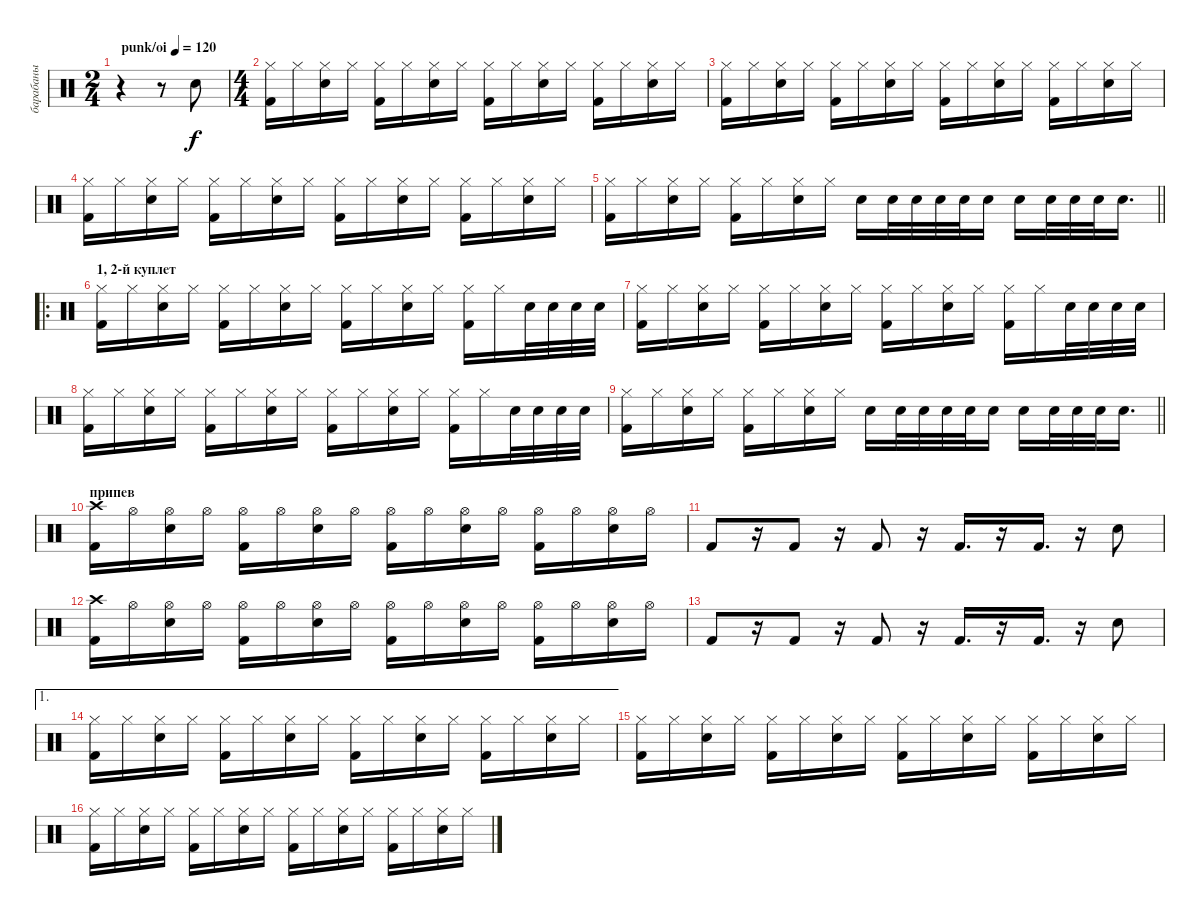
\track ("барабаны" "барабаны") {instrument percussion}
\staff {score}
\articulation defaults
\ts (2 4)
\tempo (120 "punk/oi")
\clef neutral
\ks c
r.4{dy f} r.8 "Snare (hit) 2".8 |
\ts (4 4)
("Hi-Hat (closed)" "Kick (hit) 2").16 "Hi-Hat (closed)".16 ("Hi-Hat (closed)" "Snare (hit) 2").16 "Hi-Hat (closed)".16 ("Hi-Hat (closed)" "Kick (hit) 2").16 "Hi-Hat (closed)".16 ("Hi-Hat (closed)" "Snare (hit) 2").16 "Hi-Hat (closed)".16 ("Hi-Hat (closed)" "Kick (hit) 2").16 "Hi-Hat (closed)".16 ("Hi-Hat (closed)" "Snare (hit) 2").16 "Hi-Hat (closed)".16 ("Hi-Hat (closed)" "Kick (hit) 2").16 "Hi-Hat (closed)".16 ("Hi-Hat (closed)" "Snare (hit) 2").16 "Hi-Hat (closed)".16 |
("Hi-Hat (closed)" "Kick (hit) 2").16 "Hi-Hat (closed)".16 ("Hi-Hat (closed)" "Snare (hit) 2").16 "Hi-Hat (closed)".16 ("Hi-Hat (closed)" "Kick (hit) 2").16 "Hi-Hat (closed)".16 ("Hi-Hat (closed)" "Snare (hit) 2").16 "Hi-Hat (closed)".16 ("Hi-Hat (closed)" "Kick (hit) 2").16 "Hi-Hat (closed)".16 ("Hi-Hat (closed)" "Snare (hit) 2").16 "Hi-Hat (closed)".16 ("Hi-Hat (closed)" "Kick (hit) 2").16 "Hi-Hat (closed)".16 ("Hi-Hat (closed)" "Snare (hit) 2").16 "Hi-Hat (closed)".16 |
("Hi-Hat (closed)" "Kick (hit) 2").16 "Hi-Hat (closed)".16 ("Hi-Hat (closed)" "Snare (hit) 2").16 "Hi-Hat (closed)".16 ("Hi-Hat (closed)" "Kick (hit) 2").16 "Hi-Hat (closed)".16 ("Hi-Hat (closed)" "Snare (hit) 2").16 "Hi-Hat (closed)".16 ("Hi-Hat (closed)" "Kick (hit) 2").16 "Hi-Hat (closed)".16 ("Hi-Hat (closed)" "Snare (hit) 2").16 "Hi-Hat (closed)".16 ("Hi-Hat (closed)" "Kick (hit) 2").16 "Hi-Hat (closed)".16 ("Hi-Hat (closed)" "Snare (hit) 2").16 "Hi-Hat (closed)".16 |
\barLineRight lightlight
("Hi-Hat (closed)" "Kick (hit) 2").16 "Hi-Hat (closed)".16 ("Hi-Hat (closed)" "Snare (hit) 2").16 "Hi-Hat (closed)".16 ("Hi-Hat (closed)" "Kick (hit) 2").16 "Hi-Hat (closed)".16 ("Hi-Hat (closed)" "Snare (hit) 2").16 "Hi-Hat (closed)".16 "Snare (hit) 2".16 "Snare (hit) 2".32 "Snare (hit) 2".32 "Snare (hit) 2".32 "Snare (hit) 2".32 "Snare (hit) 2".16 "Snare (hit) 2".16 "Snare (hit) 2".32 "Snare (hit) 2".32 "Snare (hit) 2".32 "Snare (hit) 2".16{d} |
\ro
\section ("" "1, 2-й куплет")
("Hi-Hat (closed)" "Kick (hit) 2").16 "Hi-Hat (closed)".16 ("Hi-Hat (closed)" "Snare (hit) 2").16 "Hi-Hat (closed)".16 ("Hi-Hat (closed)" "Kick (hit) 2").16 "Hi-Hat (closed)".16 ("Hi-Hat (closed)" "Snare (hit) 2").16 "Hi-Hat (closed)".16 ("Hi-Hat (closed)" "Kick (hit) 2").16 "Hi-Hat (closed)".16 ("Hi-Hat (closed)" "Snare (hit) 2").16 "Hi-Hat (closed)".16 ("Hi-Hat (closed)" "Kick (hit) 2").16 "Hi-Hat (closed)".16 "Snare (hit) 2".32 "Snare (hit) 2".32 "Snare (hit) 2".32 "Snare (hit) 2".32 |
("Hi-Hat (closed)" "Kick (hit) 2").16 "Hi-Hat (closed)".16 ("Hi-Hat (closed)" "Snare (hit) 2").16 "Hi-Hat (closed)".16 ("Hi-Hat (closed)" "Kick (hit) 2").16 "Hi-Hat (closed)".16 ("Hi-Hat (closed)" "Snare (hit) 2").16 "Hi-Hat (closed)".16 ("Hi-Hat (closed)" "Kick (hit) 2").16 "Hi-Hat (closed)".16 ("Hi-Hat (closed)" "Snare (hit) 2").16 "Hi-Hat (closed)".16 ("Hi-Hat (closed)" "Kick (hit) 2").16 "Hi-Hat (closed)".16 "Snare (hit) 2".32 "Snare (hit) 2".32 "Snare (hit) 2".32 "Snare (hit) 2".32 |
("Hi-Hat (closed)" "Kick (hit) 2").16 "Hi-Hat (closed)".16 ("Hi-Hat (closed)" "Snare (hit) 2").16 "Hi-Hat (closed)".16 ("Hi-Hat (closed)" "Kick (hit) 2").16 "Hi-Hat (closed)".16 ("Hi-Hat (closed)" "Snare (hit) 2").16 "Hi-Hat (closed)".16 ("Hi-Hat (closed)" "Kick (hit) 2").16 "Hi-Hat (closed)".16 ("Hi-Hat (closed)" "Snare (hit) 2").16 "Hi-Hat (closed)".16 ("Hi-Hat (closed)" "Kick (hit) 2").16 "Hi-Hat (closed)".16 "Snare (hit) 2".32 "Snare (hit) 2".32 "Snare (hit) 2".32 "Snare (hit) 2".32 |
\barLineRight lightlight
("Hi-Hat (closed)" "Kick (hit) 2").16 "Hi-Hat (closed)".16 ("Hi-Hat (closed)" "Snare (hit) 2").16 "Hi-Hat (closed)".16 ("Hi-Hat (closed)" "Kick (hit) 2").16 "Hi-Hat (closed)".16 ("Hi-Hat (closed)" "Snare (hit) 2").16 "Hi-Hat (closed)".16 "Snare (hit) 2".16 "Snare (hit) 2".32 "Snare (hit) 2".32 "Snare (hit) 2".32 "Snare (hit) 2".32 "Snare (hit) 2".16 "Snare (hit) 2".16 "Snare (hit) 2".32 "Snare (hit) 2".32 "Snare (hit) 2".32 "Snare (hit) 2".16{d} |
\section ("" "припев")
("Crash high (hit)" "Kick (hit) 2").16 "Hi-Hat (open)".16 ("Hi-Hat (open)" "Snare (hit) 2").16 "Hi-Hat (open)".16 ("Hi-Hat (open)" "Kick (hit) 2").16 "Hi-Hat (open)".16 ("Hi-Hat (open)" "Snare (hit) 2").16 "Hi-Hat (open)".16 ("Hi-Hat (open)" "Kick (hit) 2").16 "Hi-Hat (open)".16 ("Hi-Hat (open)" "Snare (hit) 2").16 "Hi-Hat (open)".16 ("Hi-Hat (open)" "Kick (hit) 2").16 "Hi-Hat (open)".16 ("Hi-Hat (open)" "Snare (hit) 2").16 "Hi-Hat (open)".16 |
"Kick (hit) 2".8 r.16 "Kick (hit) 2".8 r.16 "Kick (hit) 2".8 r.16 "Kick (hit) 2".16{d} r.16 "Kick (hit) 2".16{d} r.16 "Snare (hit) 2".8 |
("Crash high (hit)" "Kick (hit) 2").16 "Hi-Hat (open)".16 ("Hi-Hat (open)" "Snare (hit) 2").16 "Hi-Hat (open)".16 ("Hi-Hat (open)" "Kick (hit) 2").16 "Hi-Hat (open)".16 ("Hi-Hat (open)" "Snare (hit) 2").16 "Hi-Hat (open)".16 ("Hi-Hat (open)" "Kick (hit) 2").16 "Hi-Hat (open)".16 ("Hi-Hat (open)" "Snare (hit) 2").16 "Hi-Hat (open)".16 ("Hi-Hat (open)" "Kick (hit) 2").16 "Hi-Hat (open)".16 ("Hi-Hat (open)" "Snare (hit) 2").16 "Hi-Hat (open)".16 |
"Kick (hit) 2".8 r.16 "Kick (hit) 2".8 r.16 "Kick (hit) 2".8 r.16 "Kick (hit) 2".16{d} r.16 "Kick (hit) 2".16{d} r.16 "Snare (hit) 2".8 |
\ae 1
("Hi-Hat (closed)" "Kick (hit) 2").16 "Hi-Hat (closed)".16 ("Hi-Hat (closed)" "Snare (hit) 2").16 "Hi-Hat (closed)".16 ("Hi-Hat (closed)" "Kick (hit) 2").16 "Hi-Hat (closed)".16 ("Hi-Hat (closed)" "Snare (hit) 2").16 "Hi-Hat (closed)".16 ("Hi-Hat (closed)" "Kick (hit) 2").16 "Hi-Hat (closed)".16 ("Hi-Hat (closed)" "Snare (hit) 2").16 "Hi-Hat (closed)".16 ("Hi-Hat (closed)" "Kick (hit) 2").16 "Hi-Hat (closed)".16 ("Hi-Hat (closed)" "Snare (hit) 2").16 "Hi-Hat (closed)".16 |
("Hi-Hat (closed)" "Kick (hit) 2").16 "Hi-Hat (closed)".16 ("Hi-Hat (closed)" "Snare (hit) 2").16 "Hi-Hat (closed)".16 ("Hi-Hat (closed)" "Kick (hit) 2").16 "Hi-Hat (closed)".16 ("Hi-Hat (closed)" "Snare (hit) 2").16 "Hi-Hat (closed)".16 ("Hi-Hat (closed)" "Kick (hit) 2").16 "Hi-Hat (closed)".16 ("Hi-Hat (closed)" "Snare (hit) 2").16 "Hi-Hat (closed)".16 ("Hi-Hat (closed)" "Kick (hit) 2").16 "Hi-Hat (closed)".16 ("Hi-Hat (closed)" "Snare (hit) 2").16 "Hi-Hat (closed)".16 |
("Hi-Hat (closed)" "Kick (hit) 2").16 "Hi-Hat (closed)".16 ("Hi-Hat (closed)" "Snare (hit) 2").16 "Hi-Hat (closed)".16 ("Hi-Hat (closed)" "Kick (hit) 2").16 "Hi-Hat (closed)".16 ("Hi-Hat (closed)" "Snare (hit) 2").16 "Hi-Hat (closed)".16 ("Hi-Hat (closed)" "Kick (hit) 2").16 "Hi-Hat (closed)".16 ("Hi-Hat (closed)" "Snare (hit) 2").16 "Hi-Hat (closed)".16 ("Hi-Hat (closed)" "Kick (hit) 2").16 "Hi-Hat (closed)".16 ("Hi-Hat (closed)" "Snare (hit) 2").16 "Hi-Hat (closed)".16
